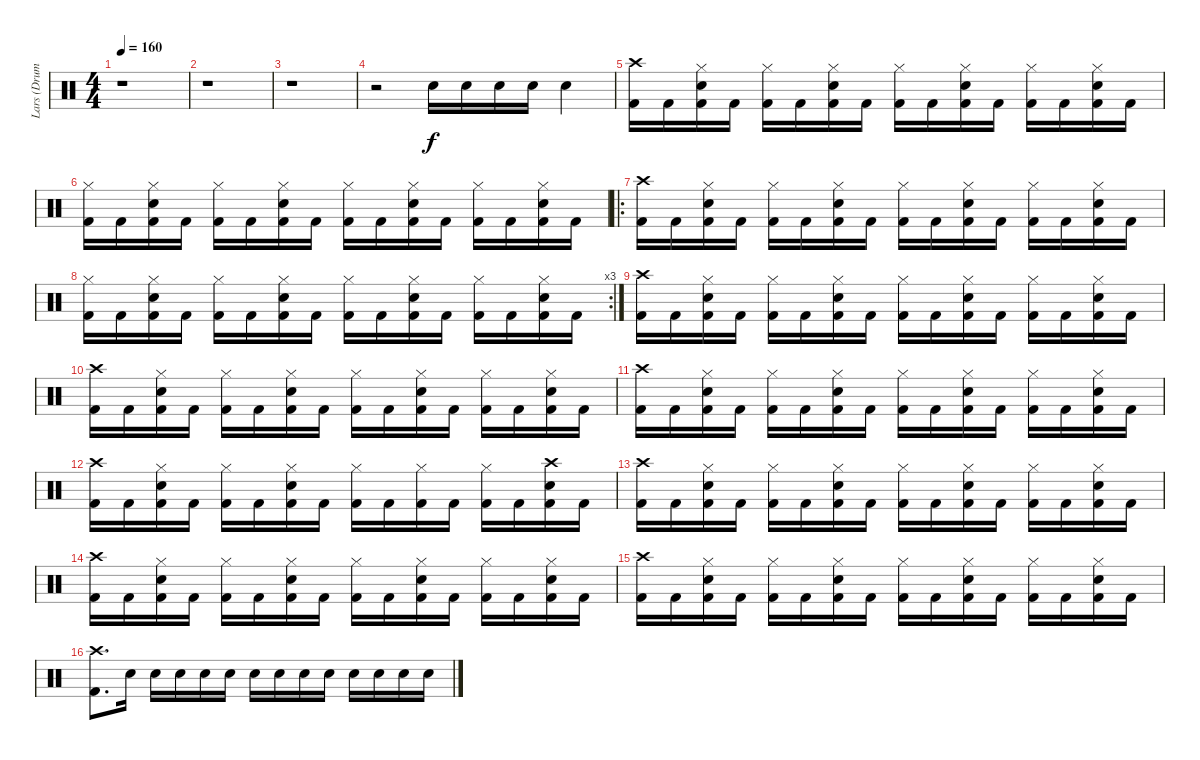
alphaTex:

\track ("Lars (Drums)" "Lars (Drum") {instrument percussion}
\staff {score}
\articulation defaults
\ts (4 4)
\tempo 160
\clef neutral
\ks c
r.1{dy f} |
r.1 |
r.1 |
r.2 "Snare (hit) 2".16 "Snare (hit) 2".16 "Snare (hit) 2".16 "Snare (hit) 2".16 "Snare (hit) 2".4 |
("Crash high (hit)" "Kick (hit) 2").16 "Kick (hit) 2".16 ("Hi-Hat (closed)" "Kick (hit) 2" "Snare (hit) 2").16 "Kick (hit) 2".16 ("Hi-Hat (closed)" "Kick (hit) 2").16 "Kick (hit) 2".16 ("Hi-Hat (closed)" "Kick (hit) 2" "Snare (hit) 2").16 "Kick (hit) 2".16 ("Hi-Hat (closed)" "Kick (hit) 2").16 "Kick (hit) 2".16 ("Hi-Hat (closed)" "Kick (hit) 2" "Snare (hit) 2").16 "Kick (hit) 2".16 ("Hi-Hat (closed)" "Kick (hit) 2").16 "Kick (hit) 2".16 ("Hi-Hat (closed)" "Kick (hit) 2" "Snare (hit) 2").16 "Kick (hit) 2".16 |
("Hi-Hat (closed)" "Kick (hit) 2").16 "Kick (hit) 2".16 ("Hi-Hat (closed)" "Kick (hit) 2" "Snare (hit) 2").16 "Kick (hit) 2".16 ("Hi-Hat (closed)" "Kick (hit) 2").16 "Kick (hit) 2".16 ("Hi-Hat (closed)" "Kick (hit) 2" "Snare (hit) 2").16 "Kick (hit) 2".16 ("Hi-Hat (closed)" "Kick (hit) 2").16 "Kick (hit) 2".16 ("Hi-Hat (closed)" "Kick (hit) 2" "Snare (hit) 2").16 "Kick (hit) 2".16 ("Hi-Hat (closed)" "Kick (hit) 2").16 "Kick (hit) 2".16 ("Hi-Hat (closed)" "Kick (hit) 2" "Snare (hit) 2").16 "Kick (hit) 2".16 |
\ro
("Crash high (hit)" "Kick (hit) 2").16 "Kick (hit) 2".16 ("Hi-Hat (closed)" "Kick (hit) 2" "Snare (hit) 2").16 "Kick (hit) 2".16 ("Hi-Hat (closed)" "Kick (hit) 2").16 "Kick (hit) 2".16 ("Hi-Hat (closed)" "Kick (hit) 2" "Snare (hit) 2").16 "Kick (hit) 2".16 ("Hi-Hat (closed)" "Kick (hit) 2").16 "Kick (hit) 2".16 ("Hi-Hat (closed)" "Kick (hit) 2" "Snare (hit) 2").16 "Kick (hit) 2".16 ("Hi-Hat (closed)" "Kick (hit) 2").16 "Kick (hit) 2".16 ("Hi-Hat (closed)" "Kick (hit) 2" "Snare (hit) 2").16 "Kick (hit) 2".16 |
\rc 3
("Hi-Hat (closed)" "Kick (hit) 2").16 "Kick (hit) 2".16 ("Hi-Hat (closed)" "Kick (hit) 2" "Snare (hit) 2").16 "Kick (hit) 2".16 ("Hi-Hat (closed)" "Kick (hit) 2").16 "Kick (hit) 2".16 ("Hi-Hat (closed)" "Kick (hit) 2" "Snare (hit) 2").16 "Kick (hit) 2".16 ("Hi-Hat (closed)" "Kick (hit) 2").16 "Kick (hit) 2".16 ("Hi-Hat (closed)" "Kick (hit) 2" "Snare (hit) 2").16 "Kick (hit) 2".16 ("Hi-Hat (closed)" "Kick (hit) 2").16 "Kick (hit) 2".16 ("Hi-Hat (closed)" "Kick (hit) 2" "Snare (hit) 2").16 "Kick (hit) 2".16 |
("Crash high (hit)" "Kick (hit) 2").16 "Kick (hit) 2".16 ("Hi-Hat (closed)" "Kick (hit) 2" "Snare (hit) 2").16 "Kick (hit) 2".16 ("Hi-Hat (closed)" "Kick (hit) 2").16 "Kick (hit) 2".16 ("Hi-Hat (closed)" "Kick (hit) 2" "Snare (hit) 2").16 "Kick (hit) 2".16 ("Hi-Hat (closed)" "Kick (hit) 2").16 "Kick (hit) 2".16 ("Hi-Hat (closed)" "Kick (hit) 2" "Snare (hit) 2").16 "Kick (hit) 2".16 ("Hi-Hat (closed)" "Kick (hit) 2").16 "Kick (hit) 2".16 ("Hi-Hat (closed)" "Kick (hit) 2" "Snare (hit) 2").16 "Kick (hit) 2".16 |
("Crash high (hit)" "Kick (hit) 2").16 "Kick (hit) 2".16 ("Hi-Hat (closed)" "Kick (hit) 2" "Snare (hit) 2").16 "Kick (hit) 2".16 ("Hi-Hat (closed)" "Kick (hit) 2").16 "Kick (hit) 2".16 ("Hi-Hat (closed)" "Kick (hit) 2" "Snare (hit) 2").16 "Kick (hit) 2".16 ("Hi-Hat (closed)" "Kick (hit) 2").16 "Kick (hit) 2".16 ("Hi-Hat (closed)" "Kick (hit) 2" "Snare (hit) 2").16 "Kick (hit) 2".16 ("Hi-Hat (closed)" "Kick (hit) 2").16 "Kick (hit) 2".16 ("Hi-Hat (closed)" "Kick (hit) 2" "Snare (hit) 2").16 "Kick (hit) 2".16 |
("Crash high (hit)" "Kick (hit) 2").16 "Kick (hit) 2".16 ("Hi-Hat (closed)" "Kick (hit) 2" "Snare (hit) 2").16 "Kick (hit) 2".16 ("Hi-Hat (closed)" "Kick (hit) 2").16 "Kick (hit) 2".16 ("Hi-Hat (closed)" "Kick (hit) 2" "Snare (hit) 2").16 "Kick (hit) 2".16 ("Hi-Hat (closed)" "Kick (hit) 2").16 "Kick (hit) 2".16 ("Hi-Hat (closed)" "Kick (hit) 2" "Snare (hit) 2").16 "Kick (hit) 2".16 ("Hi-Hat (closed)" "Kick (hit) 2").16 "Kick (hit) 2".16 ("Hi-Hat (closed)" "Kick (hit) 2" "Snare (hit) 2").16 "Kick (hit) 2".16 |
("Crash high (hit)" "Kick (hit) 2").16 "Kick (hit) 2".16 ("Hi-Hat (closed)" "Kick (hit) 2" "Snare (hit) 2").16 "Kick (hit) 2".16 ("Hi-Hat (closed)" "Kick (hit) 2").16 "Kick (hit) 2".16 ("Hi-Hat (closed)" "Kick (hit) 2" "Snare (hit) 2").16 "Kick (hit) 2".16 ("Hi-Hat (closed)" "Kick (hit) 2").16 "Kick (hit) 2".16 ("Hi-Hat (closed)" "Kick (hit) 2").16 "Kick (hit) 2".16 ("Hi-Hat (closed)" "Kick (hit) 2").16 "Kick (hit) 2".16 ("Crash high (hit)" "Kick (hit) 2" "Snare (hit) 2").16 "Kick (hit) 2".16 |
("Crash high (hit)" "Kick (hit) 2").16 "Kick (hit) 2".16 ("Hi-Hat (closed)" "Kick (hit) 2" "Snare (hit) 2").16 "Kick (hit) 2".16 ("Hi-Hat (closed)" "Kick (hit) 2").16 "Kick (hit) 2".16 ("Hi-Hat (closed)" "Kick (hit) 2" "Snare (hit) 2").16 "Kick (hit) 2".16 ("Hi-Hat (closed)" "Kick (hit) 2").16 "Kick (hit) 2".16 ("Hi-Hat (closed)" "Kick (hit) 2" "Snare (hit) 2").16 "Kick (hit) 2".16 ("Hi-Hat (closed)" "Kick (hit) 2").16 "Kick (hit) 2".16 ("Hi-Hat (closed)" "Kick (hit) 2" "Snare (hit) 2").16 "Kick (hit) 2".16 |
("Crash high (hit)" "Kick (hit) 2").16 "Kick (hit) 2".16 ("Hi-Hat (closed)" "Kick (hit) 2" "Snare (hit) 2").16 "Kick (hit) 2".16 ("Hi-Hat (closed)" "Kick (hit) 2").16 "Kick (hit) 2".16 ("Hi-Hat (closed)" "Kick (hit) 2" "Snare (hit) 2").16 "Kick (hit) 2".16 ("Hi-Hat (closed)" "Kick (hit) 2").16 "Kick (hit) 2".16 ("Hi-Hat (closed)" "Kick (hit) 2" "Snare (hit) 2").16 "Kick (hit) 2".16 ("Hi-Hat (closed)" "Kick (hit) 2").16 "Kick (hit) 2".16 ("Hi-Hat (closed)" "Kick (hit) 2" "Snare (hit) 2").16 "Kick (hit) 2".16 |
("Crash high (hit)" "Kick (hit) 2").16 "Kick (hit) 2".16 ("Hi-Hat (closed)" "Kick (hit) 2" "Snare (hit) 2").16 "Kick (hit) 2".16 ("Hi-Hat (closed)" "Kick (hit) 2").16 "Kick (hit) 2".16 ("Hi-Hat (closed)" "Kick (hit) 2" "Snare (hit) 2").16 "Kick (hit) 2".16 ("Hi-Hat (closed)" "Kick (hit) 2").16 "Kick (hit) 2".16 ("Hi-Hat (closed)" "Kick (hit) 2" "Snare (hit) 2").16 "Kick (hit) 2".16 ("Hi-Hat (closed)" "Kick (hit) 2").16 "Kick (hit) 2".16 ("Hi-Hat (closed)" "Kick (hit) 2" "Snare (hit) 2").16 "Kick (hit) 2".16 |
("Crash high (hit)" "Kick (hit) 2").8{d} "Snare (hit) 2".16 "Snare (hit) 2".16 "Snare (hit) 2".16 "Snare (hit) 2".16 "Snare (hit) 2".16 "Snare (hit) 2".16 "Snare (hit) 2".16 "Snare (hit) 2".16 "Snare (hit) 2".16 "Snare (hit) 2".16 "Snare (hit) 2".16 "Snare (hit) 2".16 "Snare (hit) 2".16
